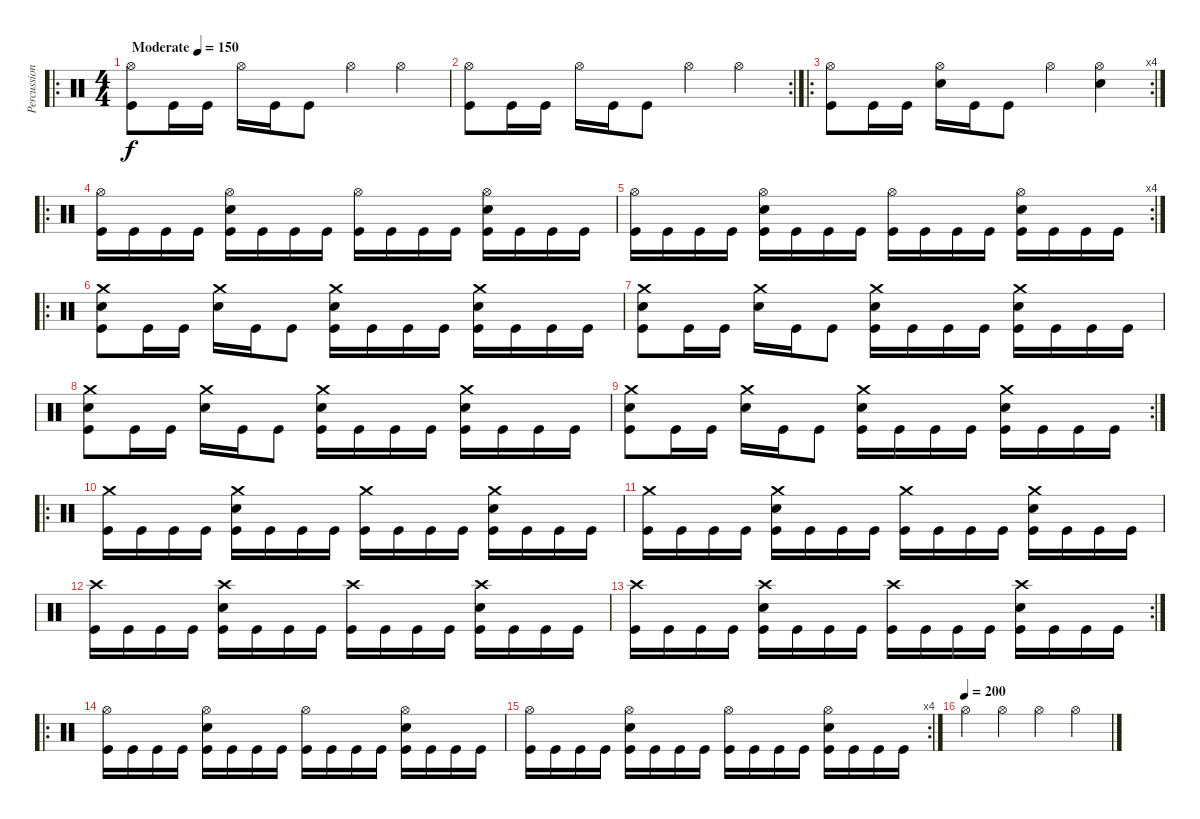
\track ("Percussion" "Percussion") {instrument percussion}
\staff {score}
\articulation defaults
\ro
\ts (4 4)
\tempo (150 "Moderate")
\clef neutral
\ks c
("Hi-Hat (open)" "Kick (hit)").8{dy f} "Kick (hit)".16 "Kick (hit)".16 "Hi-Hat (open)".16 "Kick (hit)".16 "Kick (hit)".8 "Hi-Hat (open)".4 "Hi-Hat (open)".4 |
\rc 2
("Hi-Hat (open)" "Kick (hit)").8 "Kick (hit)".16 "Kick (hit)".16 "Hi-Hat (open)".16 "Kick (hit)".16 "Kick (hit)".8 "Hi-Hat (open)".4 "Hi-Hat (open)".4 |
\ro
\rc 4
("Hi-Hat (open)" "Kick (hit)").8 "Kick (hit)".16 "Kick (hit)".16 ("Hi-Hat (open)" "Snare (hit) 2").16 "Kick (hit)".16 "Kick (hit)".8 "Hi-Hat (open)".4 ("Hi-Hat (open)" "Snare (hit) 2").4 |
\ro
("Hi-Hat (open)" "Kick (hit)").16 "Kick (hit)".16 "Kick (hit)".16 "Kick (hit)".16 ("Hi-Hat (open)" "Snare (hit) 2" "Kick (hit)").16 "Kick (hit)".16 "Kick (hit)".16 "Kick (hit)".16 ("Hi-Hat (open)" "Kick (hit)").16 "Kick (hit)".16 "Kick (hit)".16 "Kick (hit)".16 ("Hi-Hat (open)" "Snare (hit) 2" "Kick (hit)").16 "Kick (hit)".16 "Kick (hit)".16 "Kick (hit)".16 |
\rc 4
("Hi-Hat (open)" "Kick (hit)").16 "Kick (hit)".16 "Kick (hit)".16 "Kick (hit)".16 ("Hi-Hat (open)" "Snare (hit) 2" "Kick (hit)").16 "Kick (hit)".16 "Kick (hit)".16 "Kick (hit)".16 ("Hi-Hat (open)" "Kick (hit)").16 "Kick (hit)".16 "Kick (hit)".16 "Kick (hit)".16 ("Hi-Hat (open)" "Snare (hit) 2" "Kick (hit)").16 "Kick (hit)".16 "Kick (hit)".16 "Kick (hit)".16 |
\ro
("Crash medium (hit)" "Snare (hit) 2" "Kick (hit)").8 "Kick (hit)".16 "Kick (hit)".16 ("Crash medium (hit)" "Snare (hit) 2").16 "Kick (hit)".16 "Kick (hit)".8 ("Crash medium (hit)" "Snare (hit) 2" "Kick (hit)").16 "Kick (hit)".16 "Kick (hit)".16 "Kick (hit)".16 ("Crash medium (hit)" "Snare (hit) 2" "Kick (hit)").16 "Kick (hit)".16 "Kick (hit)".16 "Kick (hit)".16 |
("Crash medium (hit)" "Snare (hit) 2" "Kick (hit)").8 "Kick (hit)".16 "Kick (hit)".16 ("Crash medium (hit)" "Snare (hit) 2").16 "Kick (hit)".16 "Kick (hit)".8 ("Crash medium (hit)" "Snare (hit) 2" "Kick (hit)").16 "Kick (hit)".16 "Kick (hit)".16 "Kick (hit)".16 ("Crash medium (hit)" "Snare (hit) 2" "Kick (hit)").16 "Kick (hit)".16 "Kick (hit)".16 "Kick (hit)".16 |
("Crash medium (hit)" "Snare (hit) 2" "Kick (hit)").8 "Kick (hit)".16 "Kick (hit)".16 ("Crash medium (hit)" "Snare (hit) 2").16 "Kick (hit)".16 "Kick (hit)".8 ("Crash medium (hit)" "Snare (hit) 2" "Kick (hit)").16 "Kick (hit)".16 "Kick (hit)".16 "Kick (hit)".16 ("Crash medium (hit)" "Snare (hit) 2" "Kick (hit)").16 "Kick (hit)".16 "Kick (hit)".16 "Kick (hit)".16 |
\rc 2
("Crash medium (hit)" "Snare (hit) 2" "Kick (hit)").8 "Kick (hit)".16 "Kick (hit)".16 ("Crash medium (hit)" "Snare (hit) 2").16 "Kick (hit)".16 "Kick (hit)".8 ("Crash medium (hit)" "Snare (hit) 2" "Kick (hit)").16 "Kick (hit)".16 "Kick (hit)".16 "Kick (hit)".16 ("Crash medium (hit)" "Snare (hit) 2" "Kick (hit)").16 "Kick (hit)".16 "Kick (hit)".16 "Kick (hit)".16 |
\ro
("Crash medium (hit)" "Kick (hit)").16 "Kick (hit)".16 "Kick (hit)".16 "Kick (hit)".16 ("Crash medium (hit)" "Snare (hit) 2" "Kick (hit)").16 "Kick (hit)".16 "Kick (hit)".16 "Kick (hit)".16 ("Crash medium (hit)" "Kick (hit)").16 "Kick (hit)".16 "Kick (hit)".16 "Kick (hit)".16 ("Crash medium (hit)" "Snare (hit) 2" "Kick (hit)").16 "Kick (hit)".16 "Kick (hit)".16 "Kick (hit)".16 |
("Crash medium (hit)" "Kick (hit)").16 "Kick (hit)".16 "Kick (hit)".16 "Kick (hit)".16 ("Crash medium (hit)" "Snare (hit) 2" "Kick (hit)").16 "Kick (hit)".16 "Kick (hit)".16 "Kick (hit)".16 ("Crash medium (hit)" "Kick (hit)").16 "Kick (hit)".16 "Kick (hit)".16 "Kick (hit)".16 ("Crash medium (hit)" "Snare (hit) 2" "Kick (hit)").16 "Kick (hit)".16 "Kick (hit)".16 "Kick (hit)".16 |
("Crash high (hit)" "Kick (hit)").16 "Kick (hit)".16 "Kick (hit)".16 "Kick (hit)".16 ("Crash high (hit)" "Snare (hit) 2" "Kick (hit)").16 "Kick (hit)".16 "Kick (hit)".16 "Kick (hit)".16 ("Crash high (hit)" "Kick (hit)").16 "Kick (hit)".16 "Kick (hit)".16 "Kick (hit)".16 ("Crash high (hit)" "Snare (hit) 2" "Kick (hit)").16 "Kick (hit)".16 "Kick (hit)".16 "Kick (hit)".16 |
\rc 2
("Crash high (hit)" "Kick (hit)").16 "Kick (hit)".16 "Kick (hit)".16 "Kick (hit)".16 ("Crash high (hit)" "Snare (hit) 2" "Kick (hit)").16 "Kick (hit)".16 "Kick (hit)".16 "Kick (hit)".16 ("Crash high (hit)" "Kick (hit)").16 "Kick (hit)".16 "Kick (hit)".16 "Kick (hit)".16 ("Crash high (hit)" "Snare (hit) 2" "Kick (hit)").16 "Kick (hit)".16 "Kick (hit)".16 "Kick (hit)".16 |
\ro
("Hi-Hat (open)" "Kick (hit)").16 "Kick (hit)".16 "Kick (hit)".16 "Kick (hit)".16 ("Hi-Hat (open)" "Snare (hit) 2" "Kick (hit)").16 "Kick (hit)".16 "Kick (hit)".16 "Kick (hit)".16 ("Hi-Hat (open)" "Kick (hit)").16 "Kick (hit)".16 "Kick (hit)".16 "Kick (hit)".16 ("Hi-Hat (open)" "Snare (hit) 2" "Kick (hit)").16 "Kick (hit)".16 "Kick (hit)".16 "Kick (hit)".16 |
\rc 4
("Hi-Hat (open)" "Kick (hit)").16 "Kick (hit)".16 "Kick (hit)".16 "Kick (hit)".16 ("Hi-Hat (open)" "Snare (hit) 2" "Kick (hit)").16 "Kick (hit)".16 "Kick (hit)".16 "Kick (hit)".16 ("Hi-Hat (open)" "Kick (hit)").16 "Kick (hit)".16 "Kick (hit)".16 "Kick (hit)".16 ("Hi-Hat (open)" "Snare (hit) 2" "Kick (hit)").16 "Kick (hit)".16 "Kick (hit)".16 "Kick (hit)".16 |
\tempo (200)
"Hi-Hat (open)".4 "Hi-Hat (open)".4 "Hi-Hat (open)".4 "Hi-Hat (open)".4
